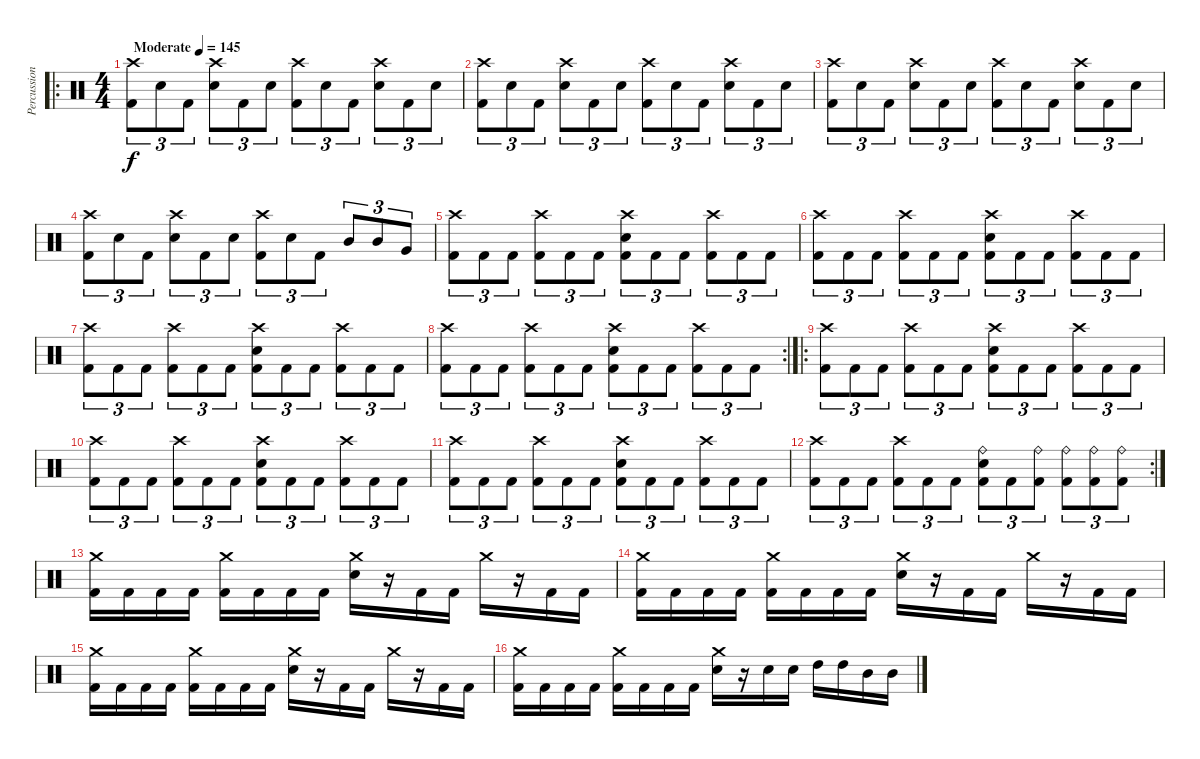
\track ("Percussion" "Percussion") {instrument percussion}
\staff {score}
\articulation defaults
\ro
\ts (4 4)
\tempo (145 "Moderate")
\clef neutral
\ks c
("Crash high (hit)" "Kick (hit) 2").8{tu (3 2) dy f} "Electric Snare (hit)".8{tu (3 2)} "Kick (hit) 2".8{tu (3 2)} ("Crash high (hit)" "Electric Snare (hit)").8{tu (3 2)} "Kick (hit) 2".8{tu (3 2)} "Electric Snare (hit)".8{tu (3 2)} ("Crash high (hit)" "Kick (hit) 2").8{tu (3 2)} "Electric Snare (hit)".8{tu (3 2)} "Kick (hit) 2".8{tu (3 2)} ("Crash high (hit)" "Electric Snare (hit)").8{tu (3 2)} "Kick (hit) 2".8{tu (3 2)} "Electric Snare (hit)".8{tu (3 2)} |
("Crash high (hit)" "Kick (hit) 2").8{tu (3 2)} "Electric Snare (hit)".8{tu (3 2)} "Kick (hit) 2".8{tu (3 2)} ("Crash high (hit)" "Electric Snare (hit)").8{tu (3 2)} "Kick (hit) 2".8{tu (3 2)} "Electric Snare (hit)".8{tu (3 2)} ("Crash high (hit)" "Kick (hit) 2").8{tu (3 2)} "Electric Snare (hit)".8{tu (3 2)} "Kick (hit) 2".8{tu (3 2)} ("Crash high (hit)" "Electric Snare (hit)").8{tu (3 2)} "Kick (hit) 2".8{tu (3 2)} "Electric Snare (hit)".8{tu (3 2)} |
("Crash high (hit)" "Kick (hit) 2").8{tu (3 2)} "Electric Snare (hit)".8{tu (3 2)} "Kick (hit) 2".8{tu (3 2)} ("Crash high (hit)" "Electric Snare (hit)").8{tu (3 2)} "Kick (hit) 2".8{tu (3 2)} "Electric Snare (hit)".8{tu (3 2)} ("Crash high (hit)" "Kick (hit) 2").8{tu (3 2)} "Electric Snare (hit)".8{tu (3 2)} "Kick (hit) 2".8{tu (3 2)} ("Crash high (hit)" "Electric Snare (hit)").8{tu (3 2)} "Kick (hit) 2".8{tu (3 2)} "Electric Snare (hit)".8{tu (3 2)} |
("Crash high (hit)" "Kick (hit) 2").8{tu (3 2)} "Electric Snare (hit)".8{tu (3 2)} "Kick (hit) 2".8{tu (3 2)} ("Crash high (hit)" "Electric Snare (hit)").8{tu (3 2)} "Kick (hit) 2".8{tu (3 2)} "Electric Snare (hit)".8{tu (3 2)} ("Crash high (hit)" "Kick (hit) 2").8{tu (3 2)} "Electric Snare (hit)".8{tu (3 2)} "Kick (hit) 2".8{tu (3 2)} "Mid Tom (hit)".8{tu (3 2)} "Mid Tom (hit)".8{tu (3 2)} "Very Low Tom (hit)".8{tu (3 2)} |
("Kick (hit) 2" "Crash high (hit)").8{tu (3 2)} "Kick (hit) 2".8{tu (3 2)} "Kick (hit) 2".8{tu (3 2)} ("Kick (hit) 2" "Crash high (hit)").8{tu (3 2)} "Kick (hit) 2".8{tu (3 2)} "Kick (hit) 2".8{tu (3 2)} ("Kick (hit) 2" "Electric Snare (hit)" "Crash high (hit)").8{tu (3 2)} "Kick (hit) 2".8{tu (3 2)} "Kick (hit) 2".8{tu (3 2)} ("Kick (hit) 2" "Crash high (hit)").8{tu (3 2)} "Kick (hit) 2".8{tu (3 2)} "Kick (hit) 2".8{tu (3 2)} |
("Kick (hit) 2" "Crash high (hit)").8{tu (3 2)} "Kick (hit) 2".8{tu (3 2)} "Kick (hit) 2".8{tu (3 2)} ("Kick (hit) 2" "Crash high (hit)").8{tu (3 2)} "Kick (hit) 2".8{tu (3 2)} "Kick (hit) 2".8{tu (3 2)} ("Kick (hit) 2" "Electric Snare (hit)" "Crash high (hit)").8{tu (3 2)} "Kick (hit) 2".8{tu (3 2)} "Kick (hit) 2".8{tu (3 2)} ("Kick (hit) 2" "Crash high (hit)").8{tu (3 2)} "Kick (hit) 2".8{tu (3 2)} "Kick (hit) 2".8{tu (3 2)} |
("Kick (hit) 2" "Crash high (hit)").8{tu (3 2)} "Kick (hit) 2".8{tu (3 2)} "Kick (hit) 2".8{tu (3 2)} ("Kick (hit) 2" "Crash high (hit)").8{tu (3 2)} "Kick (hit) 2".8{tu (3 2)} "Kick (hit) 2".8{tu (3 2)} ("Kick (hit) 2" "Electric Snare (hit)" "Crash high (hit)").8{tu (3 2)} "Kick (hit) 2".8{tu (3 2)} "Kick (hit) 2".8{tu (3 2)} ("Kick (hit) 2" "Crash high (hit)").8{tu (3 2)} "Kick (hit) 2".8{tu (3 2)} "Kick (hit) 2".8{tu (3 2)} |
\rc 2
("Kick (hit) 2" "Crash high (hit)").8{tu (3 2)} "Kick (hit) 2".8{tu (3 2)} "Kick (hit) 2".8{tu (3 2)} ("Kick (hit) 2" "Crash high (hit)").8{tu (3 2)} "Kick (hit) 2".8{tu (3 2)} "Kick (hit) 2".8{tu (3 2)} ("Kick (hit) 2" "Electric Snare (hit)" "Crash high (hit)").8{tu (3 2)} "Kick (hit) 2".8{tu (3 2)} "Kick (hit) 2".8{tu (3 2)} ("Kick (hit) 2" "Crash high (hit)").8{tu (3 2)} "Kick (hit) 2".8{tu (3 2)} "Kick (hit) 2".8{tu (3 2)} |
\ro
("Kick (hit) 2" "Crash high (hit)").8{tu (3 2)} "Kick (hit) 2".8{tu (3 2)} "Kick (hit) 2".8{tu (3 2)} ("Kick (hit) 2" "Crash high (hit)").8{tu (3 2)} "Kick (hit) 2".8{tu (3 2)} "Kick (hit) 2".8{tu (3 2)} ("Kick (hit) 2" "Electric Snare (hit)" "Crash high (hit)").8{tu (3 2)} "Kick (hit) 2".8{tu (3 2)} "Kick (hit) 2".8{tu (3 2)} ("Kick (hit) 2" "Crash high (hit)").8{tu (3 2)} "Kick (hit) 2".8{tu (3 2)} "Kick (hit) 2".8{tu (3 2)} |
("Kick (hit) 2" "Crash high (hit)").8{tu (3 2)} "Kick (hit) 2".8{tu (3 2)} "Kick (hit) 2".8{tu (3 2)} ("Kick (hit) 2" "Crash high (hit)").8{tu (3 2)} "Kick (hit) 2".8{tu (3 2)} "Kick (hit) 2".8{tu (3 2)} ("Kick (hit) 2" "Electric Snare (hit)" "Crash high (hit)").8{tu (3 2)} "Kick (hit) 2".8{tu (3 2)} "Kick (hit) 2".8{tu (3 2)} ("Kick (hit) 2" "Crash high (hit)").8{tu (3 2)} "Kick (hit) 2".8{tu (3 2)} "Kick (hit) 2".8{tu (3 2)} |
("Kick (hit) 2" "Crash high (hit)").8{tu (3 2)} "Kick (hit) 2".8{tu (3 2)} "Kick (hit) 2".8{tu (3 2)} ("Kick (hit) 2" "Crash high (hit)").8{tu (3 2)} "Kick (hit) 2".8{tu (3 2)} "Kick (hit) 2".8{tu (3 2)} ("Kick (hit) 2" "Electric Snare (hit)" "Crash high (hit)").8{tu (3 2)} "Kick (hit) 2".8{tu (3 2)} "Kick (hit) 2".8{tu (3 2)} ("Kick (hit) 2" "Crash high (hit)").8{tu (3 2)} "Kick (hit) 2".8{tu (3 2)} "Kick (hit) 2".8{tu (3 2)} |
\rc 2
("Kick (hit) 2" "Crash high (hit)").8{tu (3 2)} "Kick (hit) 2".8{tu (3 2)} "Kick (hit) 2".8{tu (3 2)} ("Kick (hit) 2" "Crash high (hit)").8{tu (3 2)} "Kick (hit) 2".8{tu (3 2)} "Kick (hit) 2".8{tu (3 2)} ("Kick (hit) 2" "Electric Snare (hit)" "Ride (bell)").8{tu (3 2)} "Kick (hit) 2".8{tu (3 2)} ("Kick (hit) 2" "Ride (bell)").8{tu (3 2)} ("Kick (hit) 2" "Ride (bell)").8{tu (3 2)} ("Kick (hit) 2" "Ride (bell)").8{tu (3 2)} ("Kick (hit) 2" "Ride (bell)").8{tu (3 2)} |
("Crash medium (hit)" "Kick (hit) 2").16 "Kick (hit) 2".16 "Kick (hit) 2".16 "Kick (hit) 2".16 ("Crash medium (hit)" "Kick (hit) 2").16 "Kick (hit) 2".16 "Kick (hit) 2".16 "Kick (hit) 2".16 ("Crash medium (hit)" "Electric Snare (hit)").16 r.16 "Kick (hit) 2".16 "Kick (hit) 2".16 "Crash medium (hit)".16 r.16 "Kick (hit) 2".16 "Kick (hit) 2".16 |
("Crash medium (hit)" "Kick (hit) 2").16 "Kick (hit) 2".16 "Kick (hit) 2".16 "Kick (hit) 2".16 ("Crash medium (hit)" "Kick (hit) 2").16 "Kick (hit) 2".16 "Kick (hit) 2".16 "Kick (hit) 2".16 ("Crash medium (hit)" "Electric Snare (hit)").16 r.16 "Kick (hit) 2".16 "Kick (hit) 2".16 "Crash medium (hit)".16 r.16 "Kick (hit) 2".16 "Kick (hit) 2".16 |
("Crash medium (hit)" "Kick (hit) 2").16 "Kick (hit) 2".16 "Kick (hit) 2".16 "Kick (hit) 2".16 ("Crash medium (hit)" "Kick (hit) 2").16 "Kick (hit) 2".16 "Kick (hit) 2".16 "Kick (hit) 2".16 ("Crash medium (hit)" "Electric Snare (hit)").16 r.16 "Kick (hit) 2".16 "Kick (hit) 2".16 "Crash medium (hit)".16 r.16 "Kick (hit) 2".16 "Kick (hit) 2".16 |
("Crash medium (hit)" "Kick (hit) 2").16 "Kick (hit) 2".16 "Kick (hit) 2".16 "Kick (hit) 2".16 ("Crash medium (hit)" "Kick (hit) 2").16 "Kick (hit) 2".16 "Kick (hit) 2".16 "Kick (hit) 2".16 ("Crash medium (hit)" "Electric Snare (hit)").16 r.16 "Electric Snare (hit)".16 "Electric Snare (hit)".16 "High Tom (hit)".16 "High Tom (hit)".16 "Mid Tom (hit)".16 "Mid Tom (hit)".16
